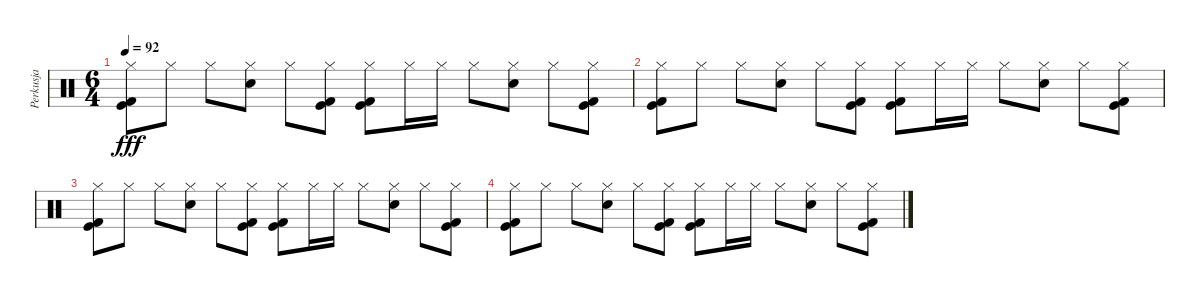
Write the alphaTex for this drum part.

\track ("Perkusja" "Perkusja") {instrument percussion}
\staff {score}
\articulation defaults
\ts (6 4)
\tempo 92
\clef neutral
\ks c
("Hi-Hat (closed)" "Kick (hit)" "Kick (hit) 2").8{dy fff} "Hi-Hat (closed)".8 "Hi-Hat (closed)".8 ("Hi-Hat (closed)" "Electric Snare (hit)").8 "Hi-Hat (closed)".8 ("Hi-Hat (closed)" "Kick (hit)" "Kick (hit) 2").8 ("Hi-Hat (closed)" "Kick (hit)" "Kick (hit) 2").8 "Hi-Hat (closed)".16 "Hi-Hat (closed)".16 "Hi-Hat (closed)".8 ("Hi-Hat (closed)" "Electric Snare (hit)").8 "Hi-Hat (closed)".8 ("Hi-Hat (closed)" "Kick (hit)" "Kick (hit) 2").8 |
("Hi-Hat (closed)" "Kick (hit)" "Kick (hit) 2").8 "Hi-Hat (closed)".8 "Hi-Hat (closed)".8 ("Hi-Hat (closed)" "Electric Snare (hit)").8 "Hi-Hat (closed)".8 ("Hi-Hat (closed)" "Kick (hit)" "Kick (hit) 2").8 ("Hi-Hat (closed)" "Kick (hit)" "Kick (hit) 2").8 "Hi-Hat (closed)".16 "Hi-Hat (closed)".16 "Hi-Hat (closed)".8 ("Hi-Hat (closed)" "Electric Snare (hit)").8 "Hi-Hat (closed)".8 ("Hi-Hat (closed)" "Kick (hit)" "Kick (hit) 2").8 |
("Hi-Hat (closed)" "Kick (hit)" "Kick (hit) 2").8 "Hi-Hat (closed)".8 "Hi-Hat (closed)".8 ("Hi-Hat (closed)" "Electric Snare (hit)").8 "Hi-Hat (closed)".8 ("Hi-Hat (closed)" "Kick (hit)" "Kick (hit) 2").8 ("Hi-Hat (closed)" "Kick (hit)" "Kick (hit) 2").8 "Hi-Hat (closed)".16 "Hi-Hat (closed)".16 "Hi-Hat (closed)".8 ("Hi-Hat (closed)" "Electric Snare (hit)").8 "Hi-Hat (closed)".8 ("Hi-Hat (closed)" "Kick (hit)" "Kick (hit) 2").8 |
("Hi-Hat (closed)" "Kick (hit)" "Kick (hit) 2").8 "Hi-Hat (closed)".8 "Hi-Hat (closed)".8 ("Hi-Hat (closed)" "Electric Snare (hit)").8 "Hi-Hat (closed)".8 ("Hi-Hat (closed)" "Kick (hit)" "Kick (hit) 2").8 ("Hi-Hat (closed)" "Kick (hit)" "Kick (hit) 2").8 "Hi-Hat (closed)".16 "Hi-Hat (closed)".16 "Hi-Hat (closed)".8 ("Hi-Hat (closed)" "Electric Snare (hit)").8 "Hi-Hat (closed)".8 ("Hi-Hat (closed)" "Kick (hit)" "Kick (hit) 2").8
